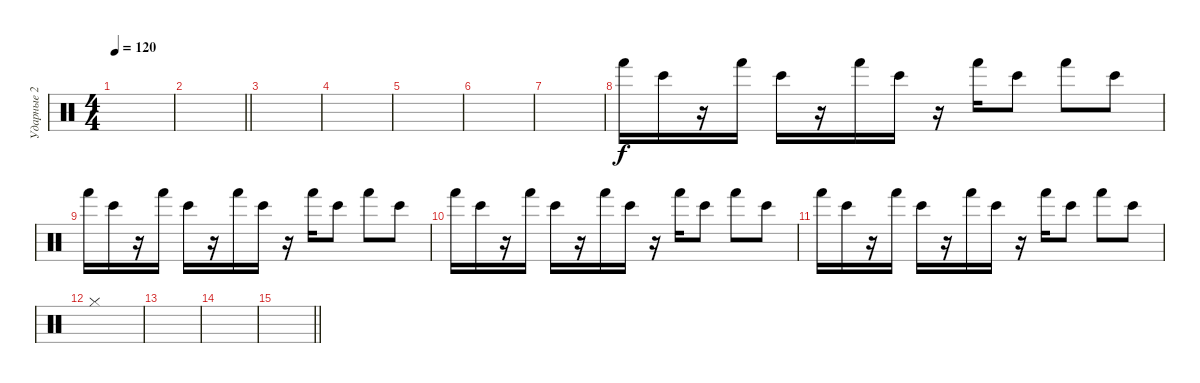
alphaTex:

\track ("Ударные 2" "Ударные 2") {instrument percussion}
\staff {score}
\articulation defaults
\ts (4 4)
\tempo 120
\clef neutral
\ks c
|
\barLineRight lightlight
|
|
|
|
|
|
"Hand (hit)".16 "Bongo High (hit)".16 r.16 "Hand (hit)".16 "Bongo High (hit)".16 r.16 "Hand (hit)".16 "Bongo High (hit)".16 r.16 "Hand (hit)".16 "Bongo High (hit)".8 "Hand (hit)".8 "Bongo High (hit)".8 |
"Hand (hit)".16 "Bongo High (hit)".16 r.16 "Hand (hit)".16 "Bongo High (hit)".16 r.16 "Hand (hit)".16 "Bongo High (hit)".16 r.16 "Hand (hit)".16 "Bongo High (hit)".8 "Hand (hit)".8 "Bongo High (hit)".8 |
"Hand (hit)".16 "Bongo High (hit)".16 r.16 "Hand (hit)".16 "Bongo High (hit)".16 r.16 "Hand (hit)".16 "Bongo High (hit)".16 r.16 "Hand (hit)".16 "Bongo High (hit)".8 "Hand (hit)".8 "Bongo High (hit)".8 |
"Hand (hit)".16 "Bongo High (hit)".16 r.16 "Hand (hit)".16 "Bongo High (hit)".16 r.16 "Hand (hit)".16 "Bongo High (hit)".16 r.16 "Hand (hit)".16 "Bongo High (hit)".8 "Hand (hit)".8 "Bongo High (hit)".8 |
"Hi-Hat (closed)".1 |
|
|
\barLineRight lightlight
